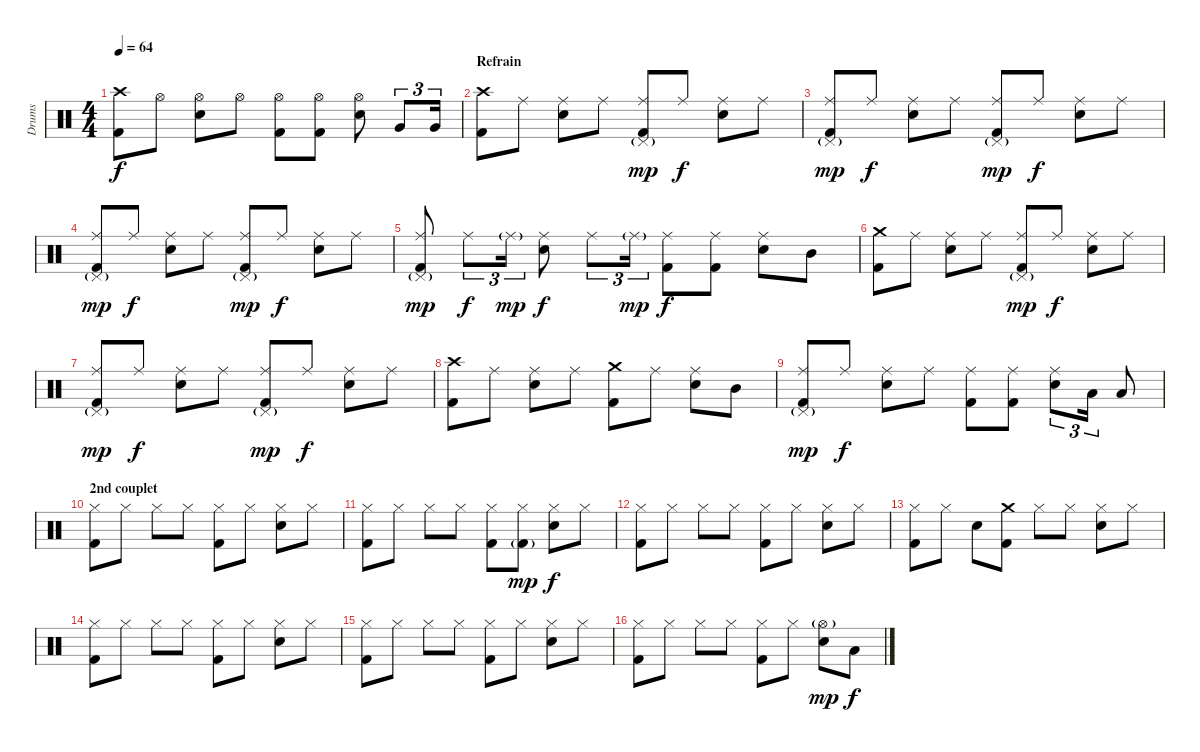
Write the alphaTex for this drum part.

\track ("Drums" "Drums") {instrument percussion}
\staff {score}
\articulation defaults
\ts (4 4)
\tempo 64
\clef neutral
\ks c
("Crash high (hit)" "Kick (hit) 2").8{dy f} "Hi-Hat (open)".8 ("Hi-Hat (open)" "Electric Snare (hit)").8 "Hi-Hat (open)".8 ("Hi-Hat (open)" "Kick (hit) 2").8 ("Hi-Hat (open)" "Kick (hit) 2").8 ("Hi-Hat (open)" "Electric Snare (hit)").8 "Very Low Tom (hit)".8{tu (3 2)} "Very Low Tom (hit)".16{tu (3 2)} |
\section ("" "Refrain")
("Crash high (hit)" "Kick (hit) 2").8 "Ride (middle)".8 ("Ride (middle)" "Electric Snare (hit)").8 "Ride (middle)".8 ("Ride (middle)" "Pedal Hi-Hat (hit)"{g} "Kick (hit) 2").8{dy mp} "Ride (middle)".8{dy f} ("Ride (middle)" "Electric Snare (hit)").8 "Ride (middle)".8 |
("Ride (middle)" "Pedal Hi-Hat (hit)"{g} "Kick (hit) 2").8{dy mp} "Ride (middle)".8{dy f} ("Ride (middle)" "Electric Snare (hit)").8 "Ride (middle)".8 ("Ride (middle)" "Pedal Hi-Hat (hit)"{g} "Kick (hit) 2").8{dy mp} "Ride (middle)".8{dy f} ("Ride (middle)" "Electric Snare (hit)").8 "Ride (middle)".8 |
("Ride (middle)" "Pedal Hi-Hat (hit)"{g} "Kick (hit) 2").8{dy mp} "Ride (middle)".8{dy f} ("Ride (middle)" "Electric Snare (hit)").8 "Ride (middle)".8 ("Ride (middle)" "Pedal Hi-Hat (hit)"{g} "Kick (hit) 2").8{dy mp} "Ride (middle)".8{dy f} ("Ride (middle)" "Electric Snare (hit)").8 "Ride (middle)".8 |
("Ride (middle)" "Pedal Hi-Hat (hit)"{g} "Kick (hit) 2").8{dy mp} "Ride (middle)".8{tu (3 2) dy f} "Ride (middle)"{g}.16{tu (3 2) dy mp} ("Ride (middle)" "Electric Snare (hit)").8{dy f} "Ride (middle)".8{tu (3 2)} "Ride (middle)"{g}.16{tu (3 2) dy mp} ("Ride (middle)" "Kick (hit) 2").8{dy f} ("Ride (middle)" "Kick (hit) 2").8 ("Ride (middle)" "Electric Snare (hit)").8 "Mid Tom (hit)".8 |
("Crash medium (hit)" "Kick (hit) 2").8 "Ride (middle)".8 ("Ride (middle)" "Electric Snare (hit)").8 "Ride (middle)".8 ("Ride (middle)" "Pedal Hi-Hat (hit)"{g} "Kick (hit) 2").8{dy mp} "Ride (middle)".8{dy f} ("Ride (middle)" "Electric Snare (hit)").8 "Ride (middle)".8 |
("Ride (middle)" "Pedal Hi-Hat (hit)"{g} "Kick (hit) 2").8{dy mp} "Ride (middle)".8{dy f} ("Ride (middle)" "Electric Snare (hit)").8 "Ride (middle)".8 ("Ride (middle)" "Pedal Hi-Hat (hit)"{g} "Kick (hit) 2").8{dy mp} "Ride (middle)".8{dy f} ("Ride (middle)" "Electric Snare (hit)").8 "Ride (middle)".8 |
("Crash high (hit)" "Kick (hit) 2").8 "Ride (middle)".8 ("Ride (middle)" "Electric Snare (hit)").8 "Ride (middle)".8 ("Crash medium (hit)" "Kick (hit) 2").8 "Ride (middle)".8 ("Ride (middle)" "Electric Snare (hit)").8 "Mid Tom (hit)".8 |
("Ride (middle)" "Pedal Hi-Hat (hit)"{g} "Kick (hit) 2").8{dy mp} "Ride (middle)".8{dy f} ("Ride (middle)" "Electric Snare (hit)").8 "Ride (middle)".8 ("Ride (middle)" "Kick (hit) 2").8 ("Ride (middle)" "Kick (hit) 2").8 ("Ride (middle)" "Electric Snare (hit)").8{tu (3 2)} "Low Tom (hit)".16{tu (3 2)} "Low Tom (hit)".8 |
\section ("" "2nd couplet")
("Hi-Hat (closed)" "Kick (hit) 2").8 "Hi-Hat (closed)".8 "Hi-Hat (closed)".8 "Hi-Hat (closed)".8 ("Hi-Hat (closed)" "Kick (hit) 2").8 "Hi-Hat (closed)".8 ("Hi-Hat (closed)" "Electric Snare (hit)").8 "Hi-Hat (closed)".8 |
("Hi-Hat (closed)" "Kick (hit) 2").8 "Hi-Hat (closed)".8 "Hi-Hat (closed)".8 "Hi-Hat (closed)".8 ("Hi-Hat (closed)" "Kick (hit) 2").8 ("Hi-Hat (closed)" "Kick (hit) 2"{g}).8{dy mp} ("Hi-Hat (closed)" "Electric Snare (hit)").8{dy f} "Hi-Hat (closed)".8 |
("Hi-Hat (closed)" "Kick (hit) 2").8 "Hi-Hat (closed)".8 "Hi-Hat (closed)".8 "Hi-Hat (closed)".8 ("Hi-Hat (closed)" "Kick (hit) 2").8 "Hi-Hat (closed)".8 ("Hi-Hat (closed)" "Electric Snare (hit)").8 "Hi-Hat (closed)".8 |
("Hi-Hat (closed)" "Kick (hit) 2").8 "Hi-Hat (closed)".8 "Electric Snare (hit)".8 ("Crash medium (hit)" "Kick (hit) 2").8 "Hi-Hat (closed)".8 "Hi-Hat (closed)".8 ("Hi-Hat (closed)" "Electric Snare (hit)").8 "Hi-Hat (closed)".8 |
("Hi-Hat (closed)" "Kick (hit) 2").8 "Hi-Hat (closed)".8 "Hi-Hat (closed)".8 "Hi-Hat (closed)".8 ("Hi-Hat (closed)" "Kick (hit) 2").8 "Hi-Hat (closed)".8 ("Hi-Hat (closed)" "Electric Snare (hit)").8 "Hi-Hat (closed)".8 |
("Hi-Hat (closed)" "Kick (hit) 2").8 "Hi-Hat (closed)".8 "Hi-Hat (closed)".8 "Hi-Hat (closed)".8 ("Hi-Hat (closed)" "Kick (hit) 2").8 "Hi-Hat (closed)".8 ("Hi-Hat (closed)" "Electric Snare (hit)").8 "Hi-Hat (closed)".8 |
("Hi-Hat (closed)" "Kick (hit) 2").8 "Hi-Hat (closed)".8 "Hi-Hat (closed)".8 "Hi-Hat (closed)".8 ("Hi-Hat (closed)" "Kick (hit) 2").8 "Hi-Hat (closed)".8 ("Hi-Hat (open)"{g} "Electric Snare (hit)").8{dy mp} "Low Tom (hit)".8{dy f}
